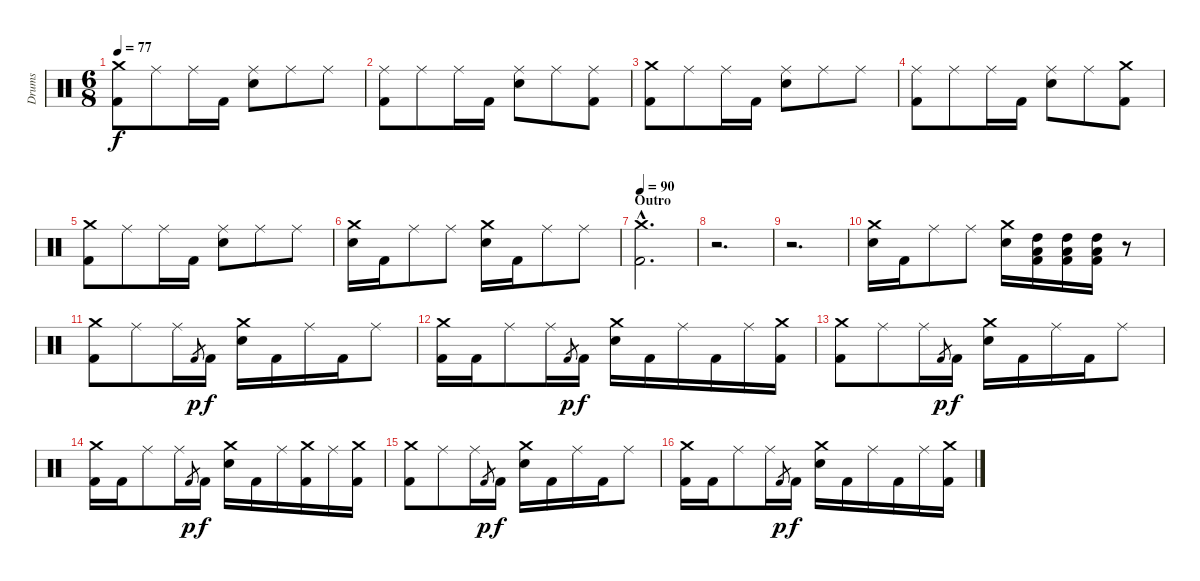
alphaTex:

\track ("Drums" "Drums") {instrument percussion}
\staff {score}
\articulation defaults
\ts (6 8)
\tempo 77
\clef neutral
\ks c
("Crash medium (hit)" "Kick (hit) 2").8{dy f} "Ride (middle)".8 "Ride (middle)".16 "Kick (hit) 2".16 ("Ride (middle)" "Snare (hit) 2").8 "Ride (middle)".8 "Ride (middle)".8 |
("Ride (middle)" "Kick (hit) 2").8 "Ride (middle)".8 "Ride (middle)".16 "Kick (hit) 2".16 ("Ride (middle)" "Snare (hit) 2").8 "Ride (middle)".8 ("Ride (middle)" "Kick (hit) 2").8 |
("Crash medium (hit)" "Kick (hit) 2").8 "Ride (middle)".8 "Ride (middle)".16 "Kick (hit) 2".16 ("Ride (middle)" "Snare (hit) 2").8 "Ride (middle)".8 "Ride (middle)".8 |
("Ride (middle)" "Kick (hit) 2").8 "Ride (middle)".8 "Ride (middle)".16 "Kick (hit) 2".16 ("Ride (middle)" "Snare (hit) 2").8 "Ride (middle)".8 ("Crash medium (hit)" "Kick (hit) 2").8 |
("Crash medium (hit)" "Kick (hit) 2").8 "Ride (middle)".8 "Ride (middle)".16 "Kick (hit) 2".16 ("Ride (middle)" "Snare (hit) 2").8 "Ride (middle)".8 "Ride (middle)".8 |
("Crash medium (hit)" "Snare (hit) 2").16 "Kick (hit) 2".16 "Ride (middle)".8 "Ride (middle)".8 ("Crash medium (hit)" "Snare (hit) 2").16 "Kick (hit) 2".16 "Ride (middle)".8 "Ride (middle)".8 |
\section ("" "Outro")
\tempo 90
("Crash medium (hit)"{hac} "Kick (hit) 2"{hac}).2{d} |
r.2{d} |
r.2{d} |
("Crash medium (hit)" "Snare (hit) 2").16 "Kick (hit) 2".16 "Ride (middle)".8 "Ride (middle)".8 ("Crash medium (hit)" "Snare (hit) 2").16 ("High Tom (hit)" "Low Floor Tom (hit)" "Kick (hit) 2").16 ("High Tom (hit)" "Low Floor Tom (hit)" "Kick (hit) 2").16 ("High Tom (hit)" "Low Floor Tom (hit)" "Kick (hit) 2").16 r.8 |
("Crash medium (hit)" "Kick (hit) 2").8 "Ride (middle)".8 "Ride (middle)".16 "Kick (hit) 2".8{gr dy p} "Kick (hit) 2".16{dy f} ("Crash medium (hit)" "Snare (hit) 2").16 "Kick (hit) 2".16 "Ride (middle)".16 "Kick (hit) 2".16 "Ride (middle)".8 |
("Crash medium (hit)" "Kick (hit) 2").16 "Kick (hit) 2".16 "Ride (middle)".8 "Ride (middle)".16 "Kick (hit) 2".8{gr dy p} "Kick (hit) 2".16{dy f} ("Crash medium (hit)" "Snare (hit) 2").16 "Kick (hit) 2".16 "Ride (middle)".16 "Kick (hit) 2".16 "Ride (middle)".16 ("Crash medium (hit)" "Kick (hit) 2").16 |
("Crash medium (hit)" "Kick (hit) 2").8 "Ride (middle)".8 "Ride (middle)".16 "Kick (hit) 2".8{gr dy p} "Kick (hit) 2".16{dy f} ("Crash medium (hit)" "Snare (hit) 2").16 "Kick (hit) 2".16 "Ride (middle)".16 "Kick (hit) 2".16 "Ride (middle)".8 |
("Crash medium (hit)" "Kick (hit) 2").16 "Kick (hit) 2".16 "Ride (middle)".8 "Ride (middle)".16 "Kick (hit) 2".8{gr dy p} "Kick (hit) 2".16{dy f} ("Crash medium (hit)" "Snare (hit) 2").16 "Kick (hit) 2".16 "Ride (middle)".16 ("Crash medium (hit)" "Kick (hit) 2").16 "Ride (middle)".16 ("Crash medium (hit)" "Kick (hit) 2").16 |
("Crash medium (hit)" "Kick (hit) 2").8 "Ride (middle)".8 "Ride (middle)".16 "Kick (hit) 2".8{gr dy p} "Kick (hit) 2".16{dy f} ("Crash medium (hit)" "Snare (hit) 2").16 "Kick (hit) 2".16 "Ride (middle)".16 "Kick (hit) 2".16 "Ride (middle)".8 |
("Crash medium (hit)" "Kick (hit) 2").16 "Kick (hit) 2".16 "Ride (middle)".8 "Ride (middle)".16 "Kick (hit) 2".8{gr dy p} "Kick (hit) 2".16{dy f} ("Crash medium (hit)" "Snare (hit) 2").16 "Kick (hit) 2".16 "Ride (middle)".16 "Kick (hit) 2".16 "Ride (middle)".16 ("Crash medium (hit)" "Kick (hit) 2").16
